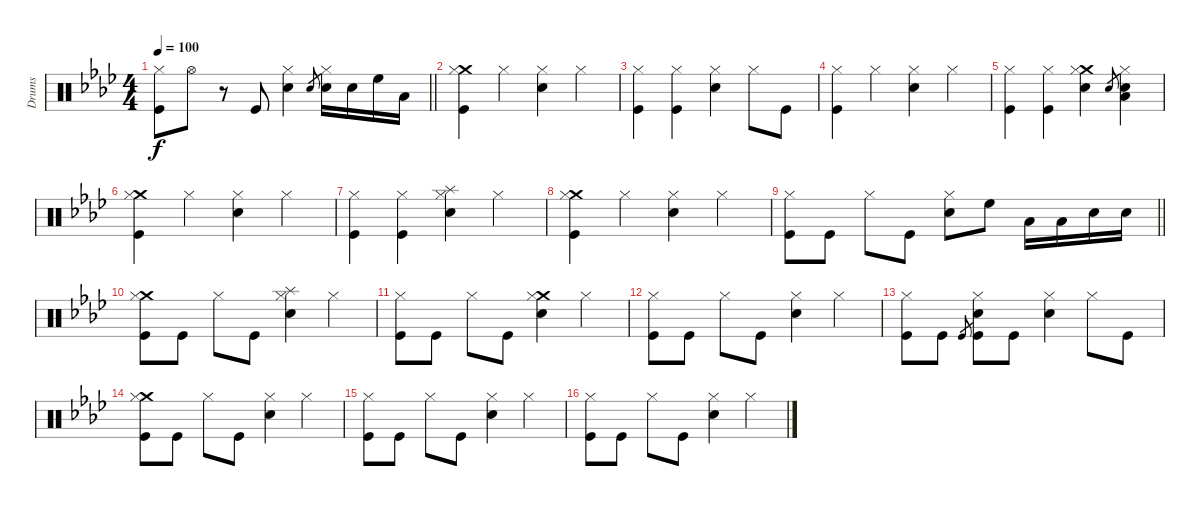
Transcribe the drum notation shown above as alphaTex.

\track ("Drums" "Drums") {instrument percussion}
\staff {score}
\articulation defaults
\ts (4 4)
\tempo 100
\clef neutral
\barLineRight lightlight
\ks ab
("Hi-Hat (closed)" "Kick (hit)").8{dy f} "Hi-Hat (open)".8 r.8 "Kick (hit)".8 ("Hi-Hat (closed)" "Electric Snare (hit)").4 "Electric Snare (hit)".8{gr} ("Hi-Hat (closed)" "Electric Snare (hit)").16 "Electric Snare (hit)".16 "High Floor Tom (hit)".16 "Low Tom (hit)".16 |
("Crash medium (hit)" "Hi-Hat (closed)" "Kick (hit)").4 "Hi-Hat (closed)".4 ("Hi-Hat (closed)" "Electric Snare (hit)").4 "Hi-Hat (closed)".4 |
("Hi-Hat (closed)" "Kick (hit)").4 ("Hi-Hat (closed)" "Kick (hit)").4 ("Hi-Hat (closed)" "Electric Snare (hit)").4 "Hi-Hat (closed)".8 "Kick (hit)".8 |
("Hi-Hat (closed)" "Kick (hit)").4 "Hi-Hat (closed)".4 ("Hi-Hat (closed)" "Electric Snare (hit)").4 "Hi-Hat (closed)".4 |
("Hi-Hat (closed)" "Kick (hit)").4 ("Hi-Hat (closed)" "Kick (hit)").4 ("Crash medium (hit)" "Hi-Hat (closed)" "Electric Snare (hit)").4 "Electric Snare (hit)".8{gr} ("Hi-Hat (closed)" "Electric Snare (hit)" "Low Tom (hit)").4 |
("Crash medium (hit)" "Hi-Hat (closed)" "Kick (hit)").4 "Hi-Hat (closed)".4 ("Hi-Hat (closed)" "Electric Snare (hit)").4 "Hi-Hat (closed)".4 |
("Hi-Hat (closed)" "Kick (hit)").4 ("Hi-Hat (closed)" "Kick (hit)").4 ("Splash (hit)" "Hi-Hat (closed)" "Electric Snare (hit)").4 "Hi-Hat (closed)".4 |
("Crash medium (hit)" "Hi-Hat (closed)" "Kick (hit)").4 "Hi-Hat (closed)".4 ("Hi-Hat (closed)" "Electric Snare (hit)").4 "Hi-Hat (closed)".4 |
\barLineRight lightlight
("Hi-Hat (closed)" "Kick (hit)").8 "Kick (hit)".8 "Hi-Hat (closed)".8 "Kick (hit)".8 ("Hi-Hat (closed)" "Electric Snare (hit)").8 "High Floor Tom (hit)".8 "Low Tom (hit)".16 "Low Tom (hit)".16 "Electric Snare (hit)".16 "Electric Snare (hit)".16 |
("Crash medium (hit)" "Hi-Hat (closed)" "Kick (hit)").8 "Kick (hit)".8 "Hi-Hat (closed)".8 "Kick (hit)".8 ("Splash (hit)" "Hi-Hat (closed)" "Electric Snare (hit)").4 "Hi-Hat (closed)".4 |
("Hi-Hat (closed)" "Kick (hit)").8 "Kick (hit)".8 "Hi-Hat (closed)".8 "Kick (hit)".8 ("Crash medium (hit)" "Hi-Hat (closed)" "Electric Snare (hit)").4 "Hi-Hat (closed)".4 |
("Hi-Hat (closed)" "Kick (hit)").8 "Kick (hit)".8 "Hi-Hat (closed)".8 "Kick (hit)".8 ("Hi-Hat (closed)" "Electric Snare (hit)").4 "Hi-Hat (closed)".4 |
("Hi-Hat (closed)" "Kick (hit)").8 "Kick (hit)".8 "Kick (hit)".8{gr} ("Hi-Hat (closed)" "Electric Snare (hit)" "Kick (hit)").8 "Kick (hit)".8 ("Hi-Hat (closed)" "Electric Snare (hit)").4 "Hi-Hat (closed)".8 "Kick (hit)".8 |
("Crash medium (hit)" "Hi-Hat (closed)" "Kick (hit)").8 "Kick (hit)".8 "Hi-Hat (closed)".8 "Kick (hit)".8 ("Hi-Hat (closed)" "Electric Snare (hit)").4 "Hi-Hat (closed)".4 |
("Hi-Hat (closed)" "Kick (hit)").8 "Kick (hit)".8 "Hi-Hat (closed)".8 "Kick (hit)".8 ("Hi-Hat (closed)" "Electric Snare (hit)").4 "Hi-Hat (closed)".4 |
("Hi-Hat (closed)" "Kick (hit)").8 "Kick (hit)".8 "Hi-Hat (closed)".8 "Kick (hit)".8 ("Hi-Hat (closed)" "Electric Snare (hit)").4 "Hi-Hat (closed)".4
